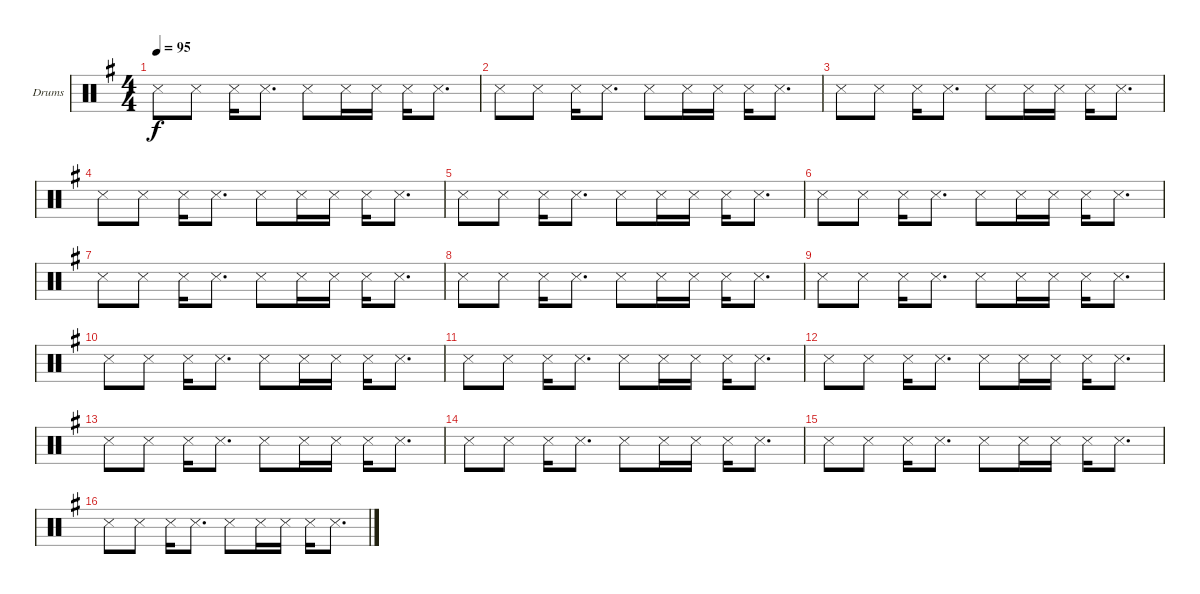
\bracketExtendMode groupsimilarinstruments
\firstSystemTrackNameOrientation horizontal
\otherSystemsTrackNameOrientation horizontal
\track ("Drumkit" "Drums") {instrument percussion}
\staff {score}
\articulation defaults
\ts (4 4)
\tempo 95
\clef neutral
\ks g "Snare (side stick) 3".8{dy f} "Snare (side stick) 3".8 "Snare (side stick) 3".16 "Snare (side stick) 3".8{d} "Snare (side stick) 3".8 "Snare (side stick) 3".16 "Snare (side stick) 3".16 "Snare (side stick) 3".16 "Snare (side stick) 3".8{d}
|
"Snare (side stick) 3".8 "Snare (side stick) 3".8 "Snare (side stick) 3".16 "Snare (side stick) 3".8{d} "Snare (side stick) 3".8 "Snare (side stick) 3".16 "Snare (side stick) 3".16 "Snare (side stick) 3".16 "Snare (side stick) 3".8{d} |
"Snare (side stick) 3".8 "Snare (side stick) 3".8 "Snare (side stick) 3".16 "Snare (side stick) 3".8{d} "Snare (side stick) 3".8 "Snare (side stick) 3".16 "Snare (side stick) 3".16 "Snare (side stick) 3".16 "Snare (side stick) 3".8{d} |
"Snare (side stick) 3".8 "Snare (side stick) 3".8 "Snare (side stick) 3".16 "Snare (side stick) 3".8{d} "Snare (side stick) 3".8 "Snare (side stick) 3".16 "Snare (side stick) 3".16 "Snare (side stick) 3".16 "Snare (side stick) 3".8{d} |
"Snare (side stick) 3".8 "Snare (side stick) 3".8 "Snare (side stick) 3".16 "Snare (side stick) 3".8{d} "Snare (side stick) 3".8 "Snare (side stick) 3".16 "Snare (side stick) 3".16 "Snare (side stick) 3".16 "Snare (side stick) 3".8{d} |
"Snare (side stick) 3".8 "Snare (side stick) 3".8 "Snare (side stick) 3".16 "Snare (side stick) 3".8{d} "Snare (side stick) 3".8 "Snare (side stick) 3".16 "Snare (side stick) 3".16 "Snare (side stick) 3".16 "Snare (side stick) 3".8{d} |
"Snare (side stick) 3".8 "Snare (side stick) 3".8 "Snare (side stick) 3".16 "Snare (side stick) 3".8{d} "Snare (side stick) 3".8 "Snare (side stick) 3".16 "Snare (side stick) 3".16 "Snare (side stick) 3".16 "Snare (side stick) 3".8{d} |
"Snare (side stick) 3".8 "Snare (side stick) 3".8 "Snare (side stick) 3".16 "Snare (side stick) 3".8{d} "Snare (side stick) 3".8 "Snare (side stick) 3".16 "Snare (side stick) 3".16 "Snare (side stick) 3".16 "Snare (side stick) 3".8{d} |
"Snare (side stick) 3".8 "Snare (side stick) 3".8 "Snare (side stick) 3".16 "Snare (side stick) 3".8{d} "Snare (side stick) 3".8 "Snare (side stick) 3".16 "Snare (side stick) 3".16 "Snare (side stick) 3".16 "Snare (side stick) 3".8{d} |
"Snare (side stick) 3".8 "Snare (side stick) 3".8 "Snare (side stick) 3".16 "Snare (side stick) 3".8{d} "Snare (side stick) 3".8 "Snare (side stick) 3".16 "Snare (side stick) 3".16 "Snare (side stick) 3".16 "Snare (side stick) 3".8{d} |
"Snare (side stick) 3".8 "Snare (side stick) 3".8 "Snare (side stick) 3".16 "Snare (side stick) 3".8{d} "Snare (side stick) 3".8 "Snare (side stick) 3".16 "Snare (side stick) 3".16 "Snare (side stick) 3".16 "Snare (side stick) 3".8{d} |
"Snare (side stick) 3".8 "Snare (side stick) 3".8 "Snare (side stick) 3".16 "Snare (side stick) 3".8{d} "Snare (side stick) 3".8 "Snare (side stick) 3".16 "Snare (side stick) 3".16 "Snare (side stick) 3".16 "Snare (side stick) 3".8{d} |
"Snare (side stick) 3".8 "Snare (side stick) 3".8 "Snare (side stick) 3".16 "Snare (side stick) 3".8{d} "Snare (side stick) 3".8 "Snare (side stick) 3".16 "Snare (side stick) 3".16 "Snare (side stick) 3".16 "Snare (side stick) 3".8{d} |
"Snare (side stick) 3".8 "Snare (side stick) 3".8 "Snare (side stick) 3".16 "Snare (side stick) 3".8{d} "Snare (side stick) 3".8 "Snare (side stick) 3".16 "Snare (side stick) 3".16 "Snare (side stick) 3".16 "Snare (side stick) 3".8{d} |
"Snare (side stick) 3".8 "Snare (side stick) 3".8 "Snare (side stick) 3".16 "Snare (side stick) 3".8{d} "Snare (side stick) 3".8 "Snare (side stick) 3".16 "Snare (side stick) 3".16 "Snare (side stick) 3".16 "Snare (side stick) 3".8{d} |
"Snare (side stick) 3".8 "Snare (side stick) 3".8 "Snare (side stick) 3".16 "Snare (side stick) 3".8{d} "Snare (side stick) 3".8 "Snare (side stick) 3".16 "Snare (side stick) 3".16 "Snare (side stick) 3".16 "Snare (side stick) 3".8{d}
